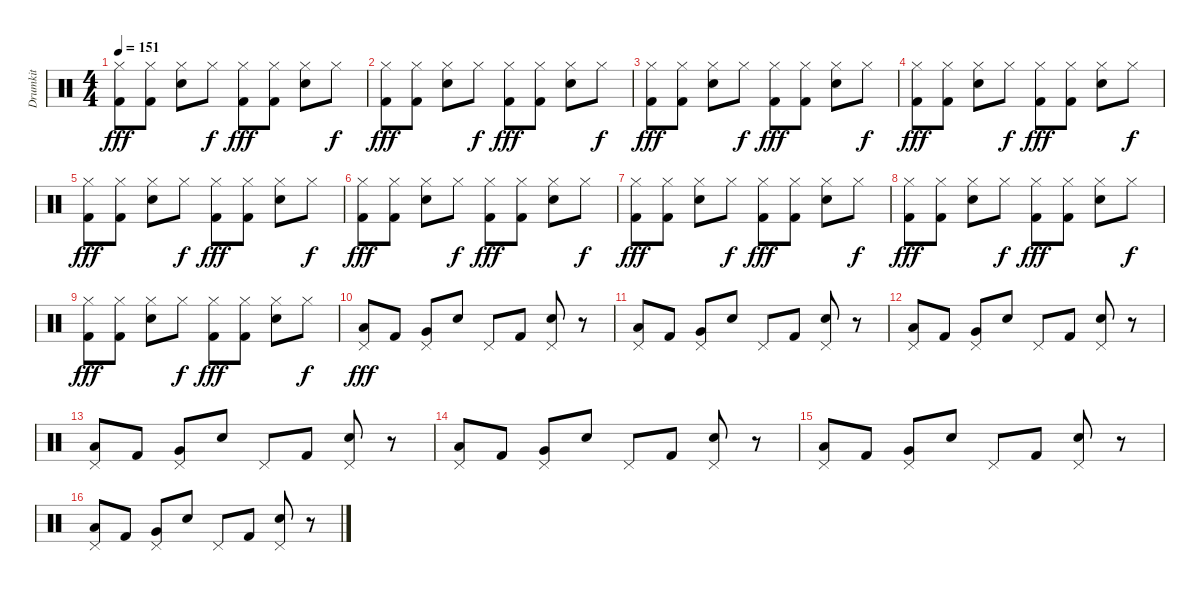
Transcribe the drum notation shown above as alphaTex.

\track ("Drumkit" "Drumkit") {instrument percussion}
\staff {score}
\articulation defaults
\ts (4 4)
\tempo 151
\clef neutral
\ks c
("Kick (hit) 2" "Hi-Hat (closed)").8{dy fff} ("Hi-Hat (closed)" "Kick (hit) 2").8 ("Electric Snare (hit)" "Hi-Hat (closed)").8 "Hi-Hat (closed)".8{dy f} ("Kick (hit) 2" "Hi-Hat (closed)").8{dy fff} ("Kick (hit) 2" "Hi-Hat (closed)").8 ("Electric Snare (hit)" "Hi-Hat (closed)").8 "Hi-Hat (closed)".8{dy f} |
("Kick (hit) 2" "Hi-Hat (closed)").8{dy fff} ("Hi-Hat (closed)" "Kick (hit) 2").8 ("Electric Snare (hit)" "Hi-Hat (closed)").8 "Hi-Hat (closed)".8{dy f} ("Kick (hit) 2" "Hi-Hat (closed)").8{dy fff} ("Kick (hit) 2" "Hi-Hat (closed)").8 ("Electric Snare (hit)" "Hi-Hat (closed)").8 "Hi-Hat (closed)".8{dy f} |
("Kick (hit) 2" "Hi-Hat (closed)").8{dy fff} ("Hi-Hat (closed)" "Kick (hit) 2").8 ("Electric Snare (hit)" "Hi-Hat (closed)").8 "Hi-Hat (closed)".8{dy f} ("Kick (hit) 2" "Hi-Hat (closed)").8{dy fff} ("Kick (hit) 2" "Hi-Hat (closed)").8 ("Electric Snare (hit)" "Hi-Hat (closed)").8 "Hi-Hat (closed)".8{dy f} |
("Kick (hit) 2" "Hi-Hat (closed)").8{dy fff} ("Hi-Hat (closed)" "Kick (hit) 2").8 ("Electric Snare (hit)" "Hi-Hat (closed)").8 "Hi-Hat (closed)".8{dy f} ("Kick (hit) 2" "Hi-Hat (closed)").8{dy fff} ("Kick (hit) 2" "Hi-Hat (closed)").8 ("Electric Snare (hit)" "Hi-Hat (closed)").8 "Hi-Hat (closed)".8{dy f} |
("Kick (hit) 2" "Hi-Hat (closed)").8{dy fff} ("Hi-Hat (closed)" "Kick (hit) 2").8 ("Electric Snare (hit)" "Hi-Hat (closed)").8 "Hi-Hat (closed)".8{dy f} ("Kick (hit) 2" "Hi-Hat (closed)").8{dy fff} ("Kick (hit) 2" "Hi-Hat (closed)").8 ("Electric Snare (hit)" "Hi-Hat (closed)").8 "Hi-Hat (closed)".8{dy f} |
("Kick (hit) 2" "Hi-Hat (closed)").8{dy fff} ("Hi-Hat (closed)" "Kick (hit) 2").8 ("Electric Snare (hit)" "Hi-Hat (closed)").8 "Hi-Hat (closed)".8{dy f} ("Kick (hit) 2" "Hi-Hat (closed)").8{dy fff} ("Kick (hit) 2" "Hi-Hat (closed)").8 ("Electric Snare (hit)" "Hi-Hat (closed)").8 "Hi-Hat (closed)".8{dy f} |
("Kick (hit) 2" "Hi-Hat (closed)").8{dy fff} ("Hi-Hat (closed)" "Kick (hit) 2").8 ("Electric Snare (hit)" "Hi-Hat (closed)").8 "Hi-Hat (closed)".8{dy f} ("Kick (hit) 2" "Hi-Hat (closed)").8{dy fff} ("Kick (hit) 2" "Hi-Hat (closed)").8 ("Electric Snare (hit)" "Hi-Hat (closed)").8 "Hi-Hat (closed)".8{dy f} |
("Kick (hit) 2" "Hi-Hat (closed)").8{dy fff} ("Hi-Hat (closed)" "Kick (hit) 2").8 ("Electric Snare (hit)" "Hi-Hat (closed)").8 "Hi-Hat (closed)".8{dy f} ("Kick (hit) 2" "Hi-Hat (closed)").8{dy fff} ("Kick (hit) 2" "Hi-Hat (closed)").8 ("Electric Snare (hit)" "Hi-Hat (closed)").8 "Hi-Hat (closed)".8{dy f} |
("Kick (hit) 2" "Hi-Hat (closed)").8{dy fff} ("Hi-Hat (closed)" "Kick (hit) 2").8 ("Electric Snare (hit)" "Hi-Hat (closed)").8 "Hi-Hat (closed)".8{dy f} ("Kick (hit) 2" "Hi-Hat (closed)").8{dy fff} ("Kick (hit) 2" "Hi-Hat (closed)").8 ("Electric Snare (hit)" "Hi-Hat (closed)").8 "Hi-Hat (closed)".8{dy f} |
("Low Tom (hit)" "Pedal Hi-Hat (hit)").8{dy fff} "Kick (hit) 2".8 ("Very Low Tom (hit)" "Pedal Hi-Hat (hit)").8 "Electric Snare (hit)".8 "Pedal Hi-Hat (hit)".8 "Kick (hit) 2".8 ("Electric Snare (hit)" "Pedal Hi-Hat (hit)").8 r.8 |
("Low Tom (hit)" "Pedal Hi-Hat (hit)").8 "Kick (hit) 2".8 ("Very Low Tom (hit)" "Pedal Hi-Hat (hit)").8 "Electric Snare (hit)".8 "Pedal Hi-Hat (hit)".8 "Kick (hit) 2".8 ("Electric Snare (hit)" "Pedal Hi-Hat (hit)").8 r.8 |
("Low Tom (hit)" "Pedal Hi-Hat (hit)").8 "Kick (hit) 2".8 ("Very Low Tom (hit)" "Pedal Hi-Hat (hit)").8 "Electric Snare (hit)".8 "Pedal Hi-Hat (hit)".8 "Kick (hit) 2".8 ("Electric Snare (hit)" "Pedal Hi-Hat (hit)").8 r.8 |
("Low Tom (hit)" "Pedal Hi-Hat (hit)").8 "Kick (hit) 2".8 ("Very Low Tom (hit)" "Pedal Hi-Hat (hit)").8 "Electric Snare (hit)".8 "Pedal Hi-Hat (hit)".8 "Kick (hit) 2".8 ("Electric Snare (hit)" "Pedal Hi-Hat (hit)").8 r.8 |
("Low Tom (hit)" "Pedal Hi-Hat (hit)").8 "Kick (hit) 2".8 ("Very Low Tom (hit)" "Pedal Hi-Hat (hit)").8 "Electric Snare (hit)".8 "Pedal Hi-Hat (hit)".8 "Kick (hit) 2".8 ("Electric Snare (hit)" "Pedal Hi-Hat (hit)").8 r.8 |
("Low Tom (hit)" "Pedal Hi-Hat (hit)").8 "Kick (hit) 2".8 ("Very Low Tom (hit)" "Pedal Hi-Hat (hit)").8 "Electric Snare (hit)".8 "Pedal Hi-Hat (hit)".8 "Kick (hit) 2".8 ("Electric Snare (hit)" "Pedal Hi-Hat (hit)").8 r.8 |
("Low Tom (hit)" "Pedal Hi-Hat (hit)").8 "Kick (hit) 2".8 ("Very Low Tom (hit)" "Pedal Hi-Hat (hit)").8 "Electric Snare (hit)".8 "Pedal Hi-Hat (hit)".8 "Kick (hit) 2".8 ("Electric Snare (hit)" "Pedal Hi-Hat (hit)").8 r.8
